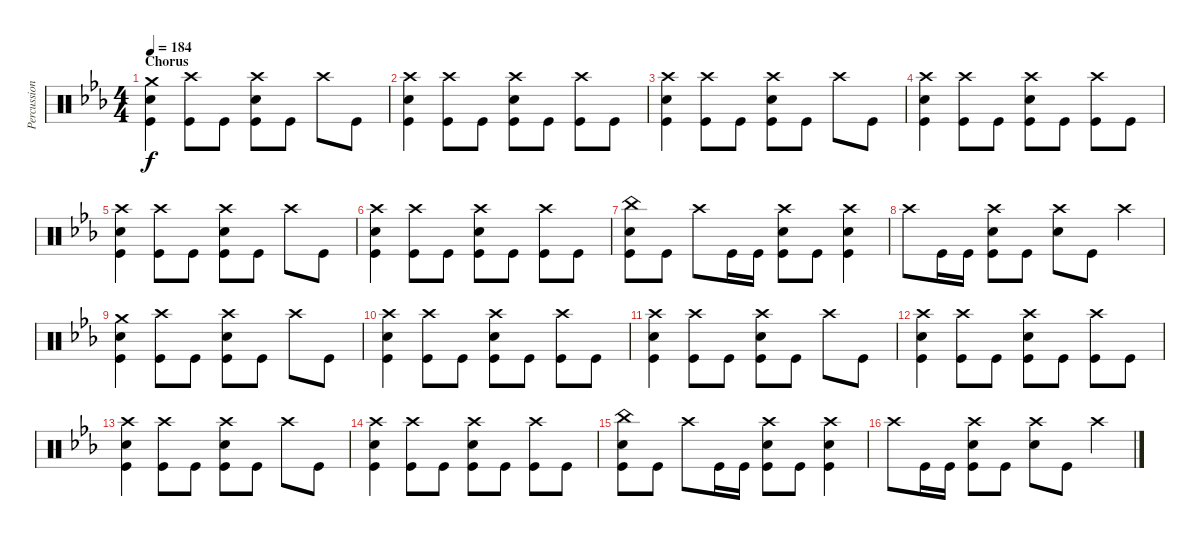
\track ("Percussion" "Percussion") {instrument percussion}
\staff {score}
\articulation defaults
\ts (4 4)
\section ("" "Chorus")
\tempo 184
\clef neutral
\ks eb
("Crash medium (hit)" "Electric Snare (hit)" "Kick (hit)").4{dy f} ("Crash high (hit)" "Kick (hit)").8 "Kick (hit)".8 ("Crash high (hit)" "Electric Snare (hit)" "Kick (hit)").8 "Kick (hit)".8 "Crash high (hit)".8 "Kick (hit)".8 |
("Crash high (hit)" "Electric Snare (hit)" "Kick (hit)").4 ("Crash high (hit)" "Kick (hit)").8 "Kick (hit)".8 ("Crash high (hit)" "Electric Snare (hit)" "Kick (hit)").8 "Kick (hit)".8 ("Crash high (hit)" "Kick (hit)").8 "Kick (hit)".8 |
("Crash high (hit)" "Electric Snare (hit)" "Kick (hit)").4 ("Crash high (hit)" "Kick (hit)").8 "Kick (hit)".8 ("Crash high (hit)" "Electric Snare (hit)" "Kick (hit)").8 "Kick (hit)".8 "Crash high (hit)".8 "Kick (hit)".8 |
("Crash high (hit)" "Electric Snare (hit)" "Kick (hit)").4 ("Crash high (hit)" "Kick (hit)").8 "Kick (hit)".8 ("Crash high (hit)" "Electric Snare (hit)" "Kick (hit)").8 "Kick (hit)".8 ("Crash high (hit)" "Kick (hit)").8 "Kick (hit)".8 |
("Crash high (hit)" "Electric Snare (hit)" "Kick (hit)").4 ("Crash high (hit)" "Kick (hit)").8 "Kick (hit)".8 ("Crash high (hit)" "Electric Snare (hit)" "Kick (hit)").8 "Kick (hit)".8 "Crash high (hit)".8 "Kick (hit)".8 |
("Crash high (hit)" "Electric Snare (hit)" "Kick (hit)").4 ("Crash high (hit)" "Kick (hit)").8 "Kick (hit)".8 ("Crash high (hit)" "Electric Snare (hit)" "Kick (hit)").8 "Kick (hit)".8 ("Crash high (hit)" "Kick (hit)").8 "Kick (hit)".8 |
("China (hit)" "Electric Snare (hit)" "Kick (hit)").8 "Kick (hit)".8 "Crash high (hit)".8 "Kick (hit)".16 "Kick (hit)".16 ("Crash high (hit)" "Electric Snare (hit)" "Kick (hit)").8 "Kick (hit)".8 ("Crash high (hit)" "Electric Snare (hit)" "Kick (hit)").4 |
"Crash high (hit)".8 "Kick (hit)".16 "Kick (hit)".16 ("Crash high (hit)" "Electric Snare (hit)" "Kick (hit)").8 "Kick (hit)".8 ("Crash high (hit)" "Electric Snare (hit)").8 "Kick (hit)".8 "Crash high (hit)".4 |
("Crash medium (hit)" "Electric Snare (hit)" "Kick (hit)").4 ("Crash high (hit)" "Kick (hit)").8 "Kick (hit)".8 ("Crash high (hit)" "Electric Snare (hit)" "Kick (hit)").8 "Kick (hit)".8 "Crash high (hit)".8 "Kick (hit)".8 |
("Crash high (hit)" "Electric Snare (hit)" "Kick (hit)").4 ("Crash high (hit)" "Kick (hit)").8 "Kick (hit)".8 ("Crash high (hit)" "Electric Snare (hit)" "Kick (hit)").8 "Kick (hit)".8 ("Crash high (hit)" "Kick (hit)").8 "Kick (hit)".8 |
("Crash high (hit)" "Electric Snare (hit)" "Kick (hit)").4 ("Crash high (hit)" "Kick (hit)").8 "Kick (hit)".8 ("Crash high (hit)" "Electric Snare (hit)" "Kick (hit)").8 "Kick (hit)".8 "Crash high (hit)".8 "Kick (hit)".8 |
("Crash high (hit)" "Electric Snare (hit)" "Kick (hit)").4 ("Crash high (hit)" "Kick (hit)").8 "Kick (hit)".8 ("Crash high (hit)" "Electric Snare (hit)" "Kick (hit)").8 "Kick (hit)".8 ("Crash high (hit)" "Kick (hit)").8 "Kick (hit)".8 |
("Crash high (hit)" "Electric Snare (hit)" "Kick (hit)").4 ("Crash high (hit)" "Kick (hit)").8 "Kick (hit)".8 ("Crash high (hit)" "Electric Snare (hit)" "Kick (hit)").8 "Kick (hit)".8 "Crash high (hit)".8 "Kick (hit)".8 |
("Crash high (hit)" "Electric Snare (hit)" "Kick (hit)").4 ("Crash high (hit)" "Kick (hit)").8 "Kick (hit)".8 ("Crash high (hit)" "Electric Snare (hit)" "Kick (hit)").8 "Kick (hit)".8 ("Crash high (hit)" "Kick (hit)").8 "Kick (hit)".8 |
("China (hit)" "Electric Snare (hit)" "Kick (hit)").8 "Kick (hit)".8 "Crash high (hit)".8 "Kick (hit)".16 "Kick (hit)".16 ("Crash high (hit)" "Electric Snare (hit)" "Kick (hit)").8 "Kick (hit)".8 ("Crash high (hit)" "Electric Snare (hit)" "Kick (hit)").4 |
"Crash high (hit)".8 "Kick (hit)".16 "Kick (hit)".16 ("Crash high (hit)" "Electric Snare (hit)" "Kick (hit)").8 "Kick (hit)".8 ("Crash high (hit)" "Electric Snare (hit)").8 "Kick (hit)".8 "Crash high (hit)".4
